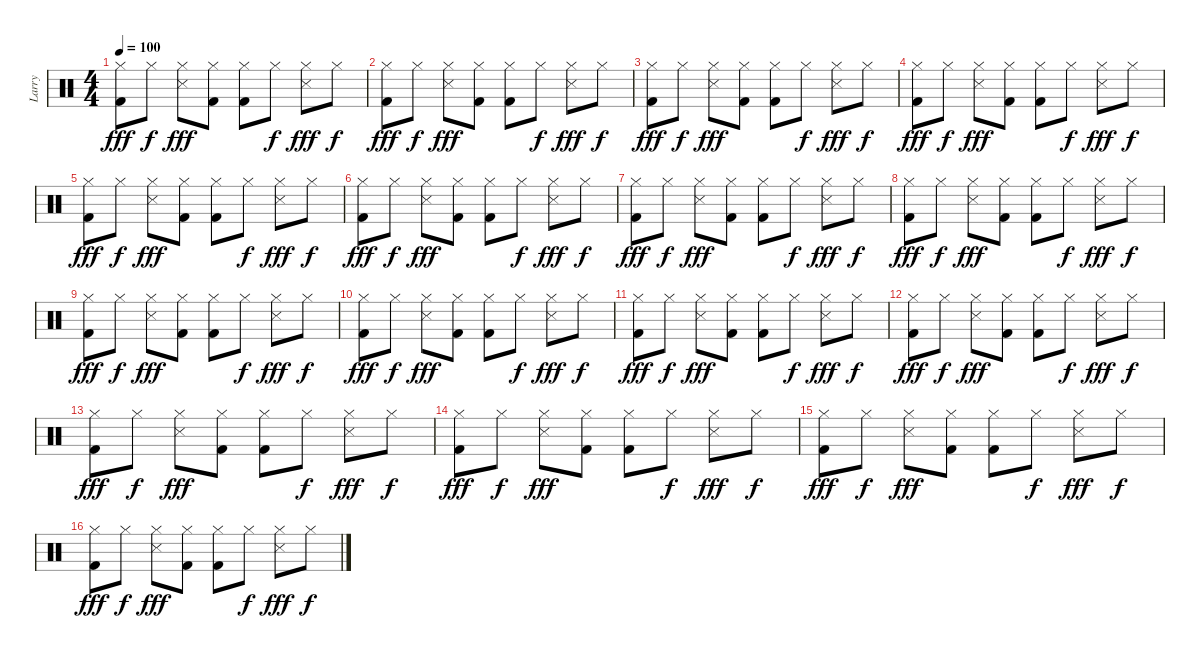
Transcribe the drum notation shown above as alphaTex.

\track ("Larry" "Larry") {instrument percussion}
\staff {score}
\articulation defaults
\ts (4 4)
\tempo 100
\clef neutral
\ks c
("Kick (hit) 2" "Hi-Hat (closed)").8{dy fff} "Hi-Hat (closed)".8{dy f} ("Snare (side stick) 3" "Hi-Hat (closed)").8{dy fff} ("Kick (hit) 2" "Hi-Hat (closed)").8 ("Kick (hit) 2" "Hi-Hat (closed)").8 "Hi-Hat (closed)".8{dy f} ("Snare (side stick) 3" "Hi-Hat (closed)").8{dy fff} "Hi-Hat (closed)".8{dy f} |
("Hi-Hat (closed)" "Kick (hit) 2").8{dy fff} "Hi-Hat (closed)".8{dy f} ("Hi-Hat (closed)" "Snare (side stick) 3").8{dy fff} ("Hi-Hat (closed)" "Kick (hit) 2").8 ("Hi-Hat (closed)" "Kick (hit) 2").8 "Hi-Hat (closed)".8{dy f} ("Hi-Hat (closed)" "Snare (side stick) 3").8{dy fff} "Hi-Hat (closed)".8{dy f} |
("Hi-Hat (closed)" "Kick (hit) 2").8{dy fff} "Hi-Hat (closed)".8{dy f} ("Hi-Hat (closed)" "Snare (side stick) 3").8{dy fff} ("Hi-Hat (closed)" "Kick (hit) 2").8 ("Hi-Hat (closed)" "Kick (hit) 2").8 "Hi-Hat (closed)".8{dy f} ("Hi-Hat (closed)" "Snare (side stick) 3").8{dy fff} "Hi-Hat (closed)".8{dy f} |
("Kick (hit) 2" "Hi-Hat (closed)").8{dy fff} "Hi-Hat (closed)".8{dy f} ("Snare (side stick) 3" "Hi-Hat (closed)").8{dy fff} ("Kick (hit) 2" "Hi-Hat (closed)").8 ("Kick (hit) 2" "Hi-Hat (closed)").8 "Hi-Hat (closed)".8{dy f} ("Snare (side stick) 3" "Hi-Hat (closed)").8{dy fff} "Hi-Hat (closed)".8{dy f} |
("Hi-Hat (closed)" "Kick (hit) 2").8{dy fff} "Hi-Hat (closed)".8{dy f} ("Hi-Hat (closed)" "Snare (side stick) 3").8{dy fff} ("Hi-Hat (closed)" "Kick (hit) 2").8 ("Hi-Hat (closed)" "Kick (hit) 2").8 "Hi-Hat (closed)".8{dy f} ("Hi-Hat (closed)" "Snare (side stick) 3").8{dy fff} "Hi-Hat (closed)".8{dy f} |
("Hi-Hat (closed)" "Kick (hit) 2").8{dy fff} "Hi-Hat (closed)".8{dy f} ("Hi-Hat (closed)" "Snare (side stick) 3").8{dy fff} ("Hi-Hat (closed)" "Kick (hit) 2").8 ("Hi-Hat (closed)" "Kick (hit) 2").8 "Hi-Hat (closed)".8{dy f} ("Hi-Hat (closed)" "Snare (side stick) 3").8{dy fff} "Hi-Hat (closed)".8{dy f} |
("Kick (hit) 2" "Hi-Hat (closed)").8{dy fff} "Hi-Hat (closed)".8{dy f} ("Snare (side stick) 3" "Hi-Hat (closed)").8{dy fff} ("Kick (hit) 2" "Hi-Hat (closed)").8 ("Kick (hit) 2" "Hi-Hat (closed)").8 "Hi-Hat (closed)".8{dy f} ("Snare (side stick) 3" "Hi-Hat (closed)").8{dy fff} "Hi-Hat (closed)".8{dy f} |
("Kick (hit) 2" "Hi-Hat (closed)").8{dy fff} "Hi-Hat (closed)".8{dy f} ("Snare (side stick) 3" "Hi-Hat (closed)").8{dy fff} ("Kick (hit) 2" "Hi-Hat (closed)").8 ("Kick (hit) 2" "Hi-Hat (closed)").8 "Hi-Hat (closed)".8{dy f} ("Snare (side stick) 3" "Hi-Hat (closed)").8{dy fff} "Hi-Hat (closed)".8{dy f} |
("Hi-Hat (closed)" "Kick (hit) 2").8{dy fff} "Hi-Hat (closed)".8{dy f} ("Hi-Hat (closed)" "Snare (side stick) 3").8{dy fff} ("Hi-Hat (closed)" "Kick (hit) 2").8 ("Hi-Hat (closed)" "Kick (hit) 2").8 "Hi-Hat (closed)".8{dy f} ("Hi-Hat (closed)" "Snare (side stick) 3").8{dy fff} "Hi-Hat (closed)".8{dy f} |
("Kick (hit) 2" "Hi-Hat (closed)").8{dy fff} "Hi-Hat (closed)".8{dy f} ("Snare (side stick) 3" "Hi-Hat (closed)").8{dy fff} ("Kick (hit) 2" "Hi-Hat (closed)").8 ("Kick (hit) 2" "Hi-Hat (closed)").8 "Hi-Hat (closed)".8{dy f} ("Snare (side stick) 3" "Hi-Hat (closed)").8{dy fff} "Hi-Hat (closed)".8{dy f} |
("Hi-Hat (closed)" "Kick (hit) 2").8{dy fff} "Hi-Hat (closed)".8{dy f} ("Hi-Hat (closed)" "Snare (side stick) 3").8{dy fff} ("Hi-Hat (closed)" "Kick (hit) 2").8 ("Hi-Hat (closed)" "Kick (hit) 2").8 "Hi-Hat (closed)".8{dy f} ("Hi-Hat (closed)" "Snare (side stick) 3").8{dy fff} "Hi-Hat (closed)".8{dy f} |
("Kick (hit) 2" "Hi-Hat (closed)").8{dy fff} "Hi-Hat (closed)".8{dy f} ("Snare (side stick) 3" "Hi-Hat (closed)").8{dy fff} ("Kick (hit) 2" "Hi-Hat (closed)").8 ("Kick (hit) 2" "Hi-Hat (closed)").8 "Hi-Hat (closed)".8{dy f} ("Snare (side stick) 3" "Hi-Hat (closed)").8{dy fff} "Hi-Hat (closed)".8{dy f} |
("Hi-Hat (closed)" "Kick (hit) 2").8{dy fff} "Hi-Hat (closed)".8{dy f} ("Hi-Hat (closed)" "Snare (side stick) 3").8{dy fff} ("Hi-Hat (closed)" "Kick (hit) 2").8 ("Hi-Hat (closed)" "Kick (hit) 2").8 "Hi-Hat (closed)".8{dy f} ("Hi-Hat (closed)" "Snare (side stick) 3").8{dy fff} "Hi-Hat (closed)".8{dy f} |
("Kick (hit) 2" "Hi-Hat (closed)").8{dy fff} "Hi-Hat (closed)".8{dy f} ("Snare (side stick) 3" "Hi-Hat (closed)").8{dy fff} ("Kick (hit) 2" "Hi-Hat (closed)").8 ("Kick (hit) 2" "Hi-Hat (closed)").8 "Hi-Hat (closed)".8{dy f} ("Snare (side stick) 3" "Hi-Hat (closed)").8{dy fff} "Hi-Hat (closed)".8{dy f} |
("Hi-Hat (closed)" "Kick (hit) 2").8{dy fff} "Hi-Hat (closed)".8{dy f} ("Hi-Hat (closed)" "Snare (side stick) 3").8{dy fff} ("Hi-Hat (closed)" "Kick (hit) 2").8 ("Hi-Hat (closed)" "Kick (hit) 2").8 "Hi-Hat (closed)".8{dy f} ("Hi-Hat (closed)" "Snare (side stick) 3").8{dy fff} "Hi-Hat (closed)".8{dy f} |
("Kick (hit) 2" "Hi-Hat (closed)").8{dy fff} "Hi-Hat (closed)".8{dy f} ("Snare (side stick) 3" "Hi-Hat (closed)").8{dy fff} ("Kick (hit) 2" "Hi-Hat (closed)").8 ("Kick (hit) 2" "Hi-Hat (closed)").8 "Hi-Hat (closed)".8{dy f} ("Snare (side stick) 3" "Hi-Hat (closed)").8{dy fff} "Hi-Hat (closed)".8{dy f}
